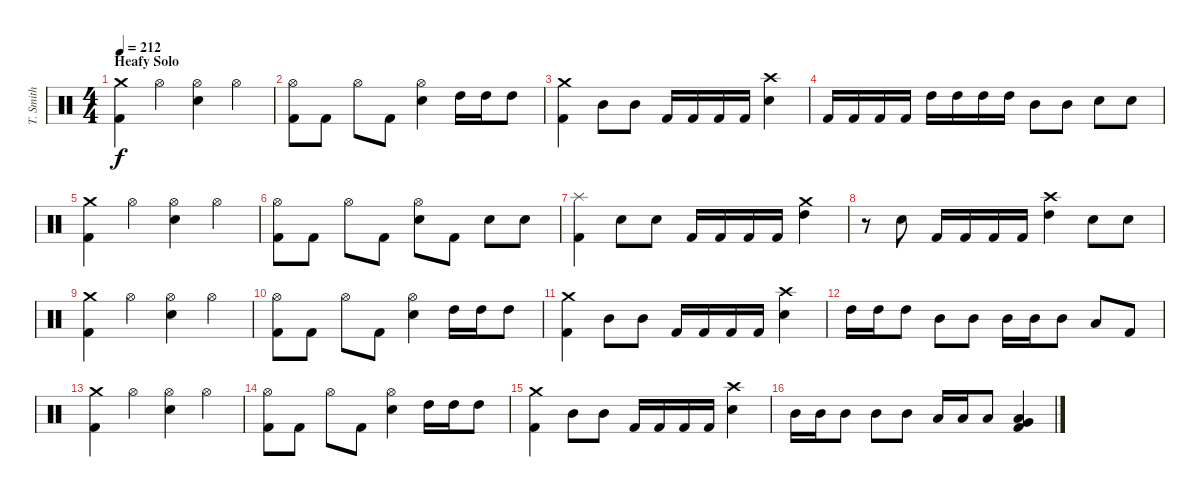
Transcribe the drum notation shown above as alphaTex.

\track ("T. Smith" "T. Smith") {instrument percussion}
\staff {score}
\articulation defaults
\ts (4 4)
\section ("" "Heafy Solo")
\tempo 212
\clef neutral
\ks c
("Crash medium (hit)" "Kick (hit) 2").4{dy f} "Hi-Hat (open)".4 ("Hi-Hat (open)" "Electric Snare (hit)").4 "Hi-Hat (open)".4 |
("Hi-Hat (open)" "Kick (hit) 2").8 "Kick (hit) 2".8 "Hi-Hat (open)".8 "Kick (hit) 2".8 ("Hi-Hat (open)" "Electric Snare (hit)").4 "High Tom (hit)".16 "High Tom (hit)".16 "High Tom (hit)".8 |
("Crash medium (hit)" "Kick (hit) 2").4 "Mid Tom (hit)".8 "Mid Tom (hit)".8 "Kick (hit) 2".16 "Kick (hit) 2".16 "Kick (hit) 2".16 "Kick (hit) 2".16 ("Crash high (hit)" "Electric Snare (hit)").4 |
"Kick (hit) 2".16 "Kick (hit) 2".16 "Kick (hit) 2".16 "Kick (hit) 2".16 "High Tom (hit)".16 "High Tom (hit)".16 "High Tom (hit)".16 "High Tom (hit)".16 "Mid Tom (hit)".8 "Mid Tom (hit)".8 "Electric Snare (hit)".8 "Electric Snare (hit)".8 |
("Crash medium (hit)" "Kick (hit) 2").4 "Hi-Hat (open)".4 ("Hi-Hat (open)" "Electric Snare (hit)").4 "Hi-Hat (open)".4 |
("Hi-Hat (open)" "Kick (hit) 2").8 "Kick (hit) 2".8 "Hi-Hat (open)".8 "Kick (hit) 2".8 ("Hi-Hat (open)" "Electric Snare (hit)").8 "Kick (hit) 2".8 "Electric Snare (hit)".8 "Electric Snare (hit)".8 |
("Splash (hit)" "Kick (hit) 2").4 "Electric Snare (hit)".8 "Electric Snare (hit)".8 "Kick (hit) 2".16 "Kick (hit) 2".16 "Kick (hit) 2".16 "Kick (hit) 2".16 ("Crash medium (hit)" "High Tom (hit)").4 |
r.8 "Electric Snare (hit)".8 "Kick (hit) 2".16 "Kick (hit) 2".16 "Kick (hit) 2".16 "Kick (hit) 2".16 ("Crash high (hit)" "High Tom (hit)").4 "Electric Snare (hit)".8 "Electric Snare (hit)".8 |
("Crash medium (hit)" "Kick (hit) 2").4 "Hi-Hat (open)".4 ("Hi-Hat (open)" "Electric Snare (hit)").4 "Hi-Hat (open)".4 |
("Hi-Hat (open)" "Kick (hit) 2").8 "Kick (hit) 2".8 "Hi-Hat (open)".8 "Kick (hit) 2".8 ("Hi-Hat (open)" "Electric Snare (hit)").4 "High Tom (hit)".16 "High Tom (hit)".16 "High Tom (hit)".8 |
("Crash medium (hit)" "Kick (hit) 2").4 "Mid Tom (hit)".8 "Mid Tom (hit)".8 "Kick (hit) 2".16 "Kick (hit) 2".16 "Kick (hit) 2".16 "Kick (hit) 2".16 ("Crash high (hit)" "Electric Snare (hit)").4 |
"High Tom (hit)".16 "High Tom (hit)".16 "High Tom (hit)".8 "Mid Tom (hit)".8 "Mid Tom (hit)".8 "Mid Tom (hit)".16 "Mid Tom (hit)".16 "Mid Tom (hit)".8 "Low Tom (hit)".8 "Kick (hit) 2".8 |
("Crash medium (hit)" "Kick (hit) 2").4 "Hi-Hat (open)".4 ("Hi-Hat (open)" "Electric Snare (hit)").4 "Hi-Hat (open)".4 |
("Hi-Hat (open)" "Kick (hit) 2").8 "Kick (hit) 2".8 "Hi-Hat (open)".8 "Kick (hit) 2".8 ("Hi-Hat (open)" "Electric Snare (hit)").4 "High Tom (hit)".16 "High Tom (hit)".16 "High Tom (hit)".8 |
("Crash medium (hit)" "Kick (hit) 2").4 "Mid Tom (hit)".8 "Mid Tom (hit)".8 "Kick (hit) 2".16 "Kick (hit) 2".16 "Kick (hit) 2".16 "Kick (hit) 2".16 ("Crash high (hit)" "Electric Snare (hit)").4 |
"Mid Tom (hit)".16 "Mid Tom (hit)".16 "Mid Tom (hit)".8 "Mid Tom (hit)".8 "Mid Tom (hit)".8 "Low Tom (hit)".16 "Low Tom (hit)".16 "Low Tom (hit)".8 ("Low Tom (hit)" "Very Low Tom (hit)" "Kick (hit) 2").4
